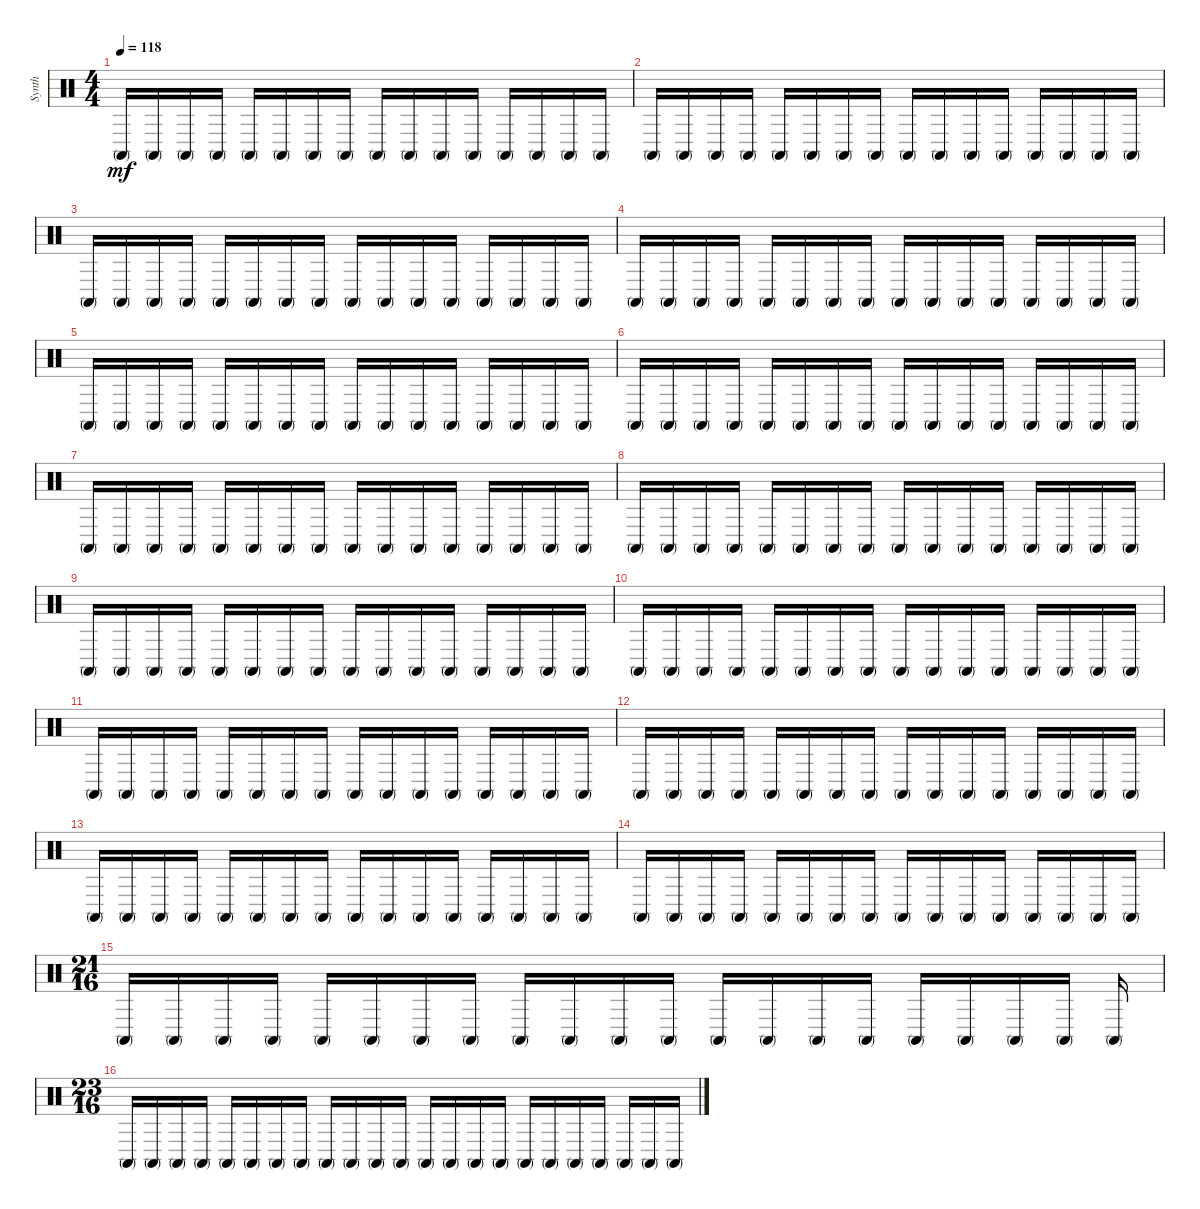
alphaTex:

\track ("Synth" "Synth") {instrument percussion}
\staff {score}
\articulation defaults
\ts (4 4)
\tempo 118
\clef neutral
\ks c "Conga high (mute)".16{dy mf} "Conga high (mute)".16 "Conga high (mute)".16 "Conga high (mute)".16 "Conga high (mute)".16 "Conga high (mute)".16 "Conga high (mute)".16 "Conga high (mute)".16 "Conga high (mute)".16 "Conga high (mute)".16 "Conga high (mute)".16 "Conga high (mute)".16 "Conga high (mute)".16 "Conga high (mute)".16 "Conga high (mute)".16 "Conga high (mute)".16
|
"Conga high (mute)".16 "Conga high (mute)".16 "Conga high (mute)".16 "Conga high (mute)".16 "Conga high (mute)".16 "Conga high (mute)".16 "Conga high (mute)".16 "Conga high (mute)".16 "Conga high (mute)".16 "Conga high (mute)".16 "Conga high (mute)".16 "Conga high (mute)".16 "Conga high (mute)".16 "Conga high (mute)".16 "Conga high (mute)".16 "Conga high (mute)".16 |
"Conga high (mute)".16 "Conga high (mute)".16 "Conga high (mute)".16 "Conga high (mute)".16 "Conga high (mute)".16 "Conga high (mute)".16 "Conga high (mute)".16 "Conga high (mute)".16 "Conga high (mute)".16 "Conga high (mute)".16 "Conga high (mute)".16 "Conga high (mute)".16 "Conga high (mute)".16 "Conga high (mute)".16 "Conga high (mute)".16 "Conga high (mute)".16 |
"Conga high (mute)".16 "Conga high (mute)".16 "Conga high (mute)".16 "Conga high (mute)".16 "Conga high (mute)".16 "Conga high (mute)".16 "Conga high (mute)".16 "Conga high (mute)".16 "Conga high (mute)".16 "Conga high (mute)".16 "Conga high (mute)".16 "Conga high (mute)".16 "Conga high (mute)".16 "Conga high (mute)".16 "Conga high (mute)".16 "Conga high (mute)".16 |
"Conga high (mute)".16 "Conga high (mute)".16 "Conga high (mute)".16 "Conga high (mute)".16 "Conga high (mute)".16 "Conga high (mute)".16 "Conga high (mute)".16 "Conga high (mute)".16 "Conga high (mute)".16 "Conga high (mute)".16 "Conga high (mute)".16 "Conga high (mute)".16 "Conga high (mute)".16 "Conga high (mute)".16 "Conga high (mute)".16 "Conga high (mute)".16 |
"Conga high (mute)".16 "Conga high (mute)".16 "Conga high (mute)".16 "Conga high (mute)".16 "Conga high (mute)".16 "Conga high (mute)".16 "Conga high (mute)".16 "Conga high (mute)".16 "Conga high (mute)".16 "Conga high (mute)".16 "Conga high (mute)".16 "Conga high (mute)".16 "Conga high (mute)".16 "Conga high (mute)".16 "Conga high (mute)".16 "Conga high (mute)".16 |
"Conga high (mute)".16 "Conga high (mute)".16 "Conga high (mute)".16 "Conga high (mute)".16 "Conga high (mute)".16 "Conga high (mute)".16 "Conga high (mute)".16 "Conga high (mute)".16 "Conga high (mute)".16 "Conga high (mute)".16 "Conga high (mute)".16 "Conga high (mute)".16 "Conga high (mute)".16 "Conga high (mute)".16 "Conga high (mute)".16 "Conga high (mute)".16 |
"Conga high (mute)".16 "Conga high (mute)".16 "Conga high (mute)".16 "Conga high (mute)".16 "Conga high (mute)".16 "Conga high (mute)".16 "Conga high (mute)".16 "Conga high (mute)".16 "Conga high (mute)".16 "Conga high (mute)".16 "Conga high (mute)".16 "Conga high (mute)".16 "Conga high (mute)".16 "Conga high (mute)".16 "Conga high (mute)".16 "Conga high (mute)".16 |
"Conga high (mute)".16 "Conga high (mute)".16 "Conga high (mute)".16 "Conga high (mute)".16 "Conga high (mute)".16 "Conga high (mute)".16 "Conga high (mute)".16 "Conga high (mute)".16 "Conga high (mute)".16 "Conga high (mute)".16 "Conga high (mute)".16 "Conga high (mute)".16 "Conga high (mute)".16 "Conga high (mute)".16 "Conga high (mute)".16 "Conga high (mute)".16 |
"Conga high (mute)".16 "Conga high (mute)".16 "Conga high (mute)".16 "Conga high (mute)".16 "Conga high (mute)".16 "Conga high (mute)".16 "Conga high (mute)".16 "Conga high (mute)".16 "Conga high (mute)".16 "Conga high (mute)".16 "Conga high (mute)".16 "Conga high (mute)".16 "Conga high (mute)".16 "Conga high (mute)".16 "Conga high (mute)".16 "Conga high (mute)".16 |
"Conga high (mute)".16 "Conga high (mute)".16 "Conga high (mute)".16 "Conga high (mute)".16 "Conga high (mute)".16 "Conga high (mute)".16 "Conga high (mute)".16 "Conga high (mute)".16 "Conga high (mute)".16 "Conga high (mute)".16 "Conga high (mute)".16 "Conga high (mute)".16 "Conga high (mute)".16 "Conga high (mute)".16 "Conga high (mute)".16 "Conga high (mute)".16 |
"Conga high (mute)".16 "Conga high (mute)".16 "Conga high (mute)".16 "Conga high (mute)".16 "Conga high (mute)".16 "Conga high (mute)".16 "Conga high (mute)".16 "Conga high (mute)".16 "Conga high (mute)".16 "Conga high (mute)".16 "Conga high (mute)".16 "Conga high (mute)".16 "Conga high (mute)".16 "Conga high (mute)".16 "Conga high (mute)".16 "Conga high (mute)".16 |
"Conga high (mute)".16 "Conga high (mute)".16 "Conga high (mute)".16 "Conga high (mute)".16 "Conga high (mute)".16 "Conga high (mute)".16 "Conga high (mute)".16 "Conga high (mute)".16 "Conga high (mute)".16 "Conga high (mute)".16 "Conga high (mute)".16 "Conga high (mute)".16 "Conga high (mute)".16 "Conga high (mute)".16 "Conga high (mute)".16 "Conga high (mute)".16 |
"Conga high (mute)".16 "Conga high (mute)".16 "Conga high (mute)".16 "Conga high (mute)".16 "Conga high (mute)".16 "Conga high (mute)".16 "Conga high (mute)".16 "Conga high (mute)".16 "Conga high (mute)".16 "Conga high (mute)".16 "Conga high (mute)".16 "Conga high (mute)".16 "Conga high (mute)".16 "Conga high (mute)".16 "Conga high (mute)".16 "Conga high (mute)".16 |
\ts (21 16)
"Conga high (mute)".16 "Conga high (mute)".16 "Conga high (mute)".16 "Conga high (mute)".16 "Conga high (mute)".16 "Conga high (mute)".16 "Conga high (mute)".16 "Conga high (mute)".16 "Conga high (mute)".16 "Conga high (mute)".16 "Conga high (mute)".16 "Conga high (mute)".16 "Conga high (mute)".16 "Conga high (mute)".16 "Conga high (mute)".16 "Conga high (mute)".16 "Conga high (mute)".16 "Conga high (mute)".16 "Conga high (mute)".16 "Conga high (mute)".16 "Conga high (mute)".16 |
\ts (23 16)
"Conga high (mute)".16 "Conga high (mute)".16 "Conga high (mute)".16 "Conga high (mute)".16 "Conga high (mute)".16 "Conga high (mute)".16 "Conga high (mute)".16 "Conga high (mute)".16 "Conga high (mute)".16 "Conga high (mute)".16 "Conga high (mute)".16 "Conga high (mute)".16 "Conga high (mute)".16 "Conga high (mute)".16 "Conga high (mute)".16 "Conga high (mute)".16 "Conga high (mute)".16 "Conga high (mute)".16 "Conga high (mute)".16 "Conga high (mute)".16 "Conga high (mute)".16 "Conga high (mute)".16 "Conga high (mute)".16
